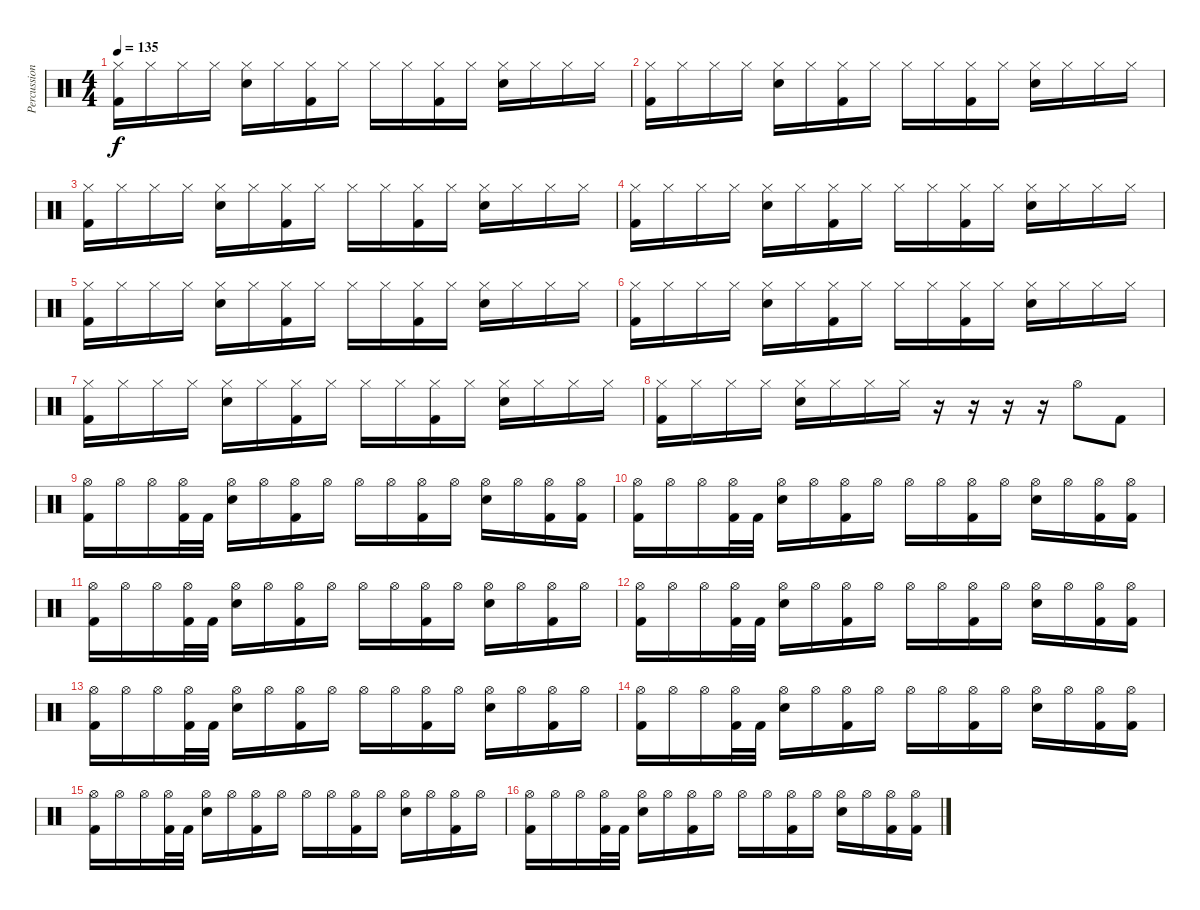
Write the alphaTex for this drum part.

\track ("Percussion" "Percussion") {instrument percussion}
\staff {score}
\articulation defaults
\ts (4 4)
\tempo 135
\clef neutral
\ks c
("Hi-Hat (closed)" "Kick (hit) 2").16{dy f} "Hi-Hat (closed)".16 "Hi-Hat (closed)".16 "Hi-Hat (closed)".16 ("Hi-Hat (closed)" "Snare (hit) 2").16 "Hi-Hat (closed)".16 ("Hi-Hat (closed)" "Kick (hit) 2").16 "Hi-Hat (closed)".16 "Hi-Hat (closed)".16 "Hi-Hat (closed)".16 ("Hi-Hat (closed)" "Kick (hit) 2").16 "Hi-Hat (closed)".16 ("Hi-Hat (closed)" "Snare (hit) 2").16 "Hi-Hat (closed)".16 "Hi-Hat (closed)".16 "Hi-Hat (closed)".16 |
("Hi-Hat (closed)" "Kick (hit) 2").16 "Hi-Hat (closed)".16 "Hi-Hat (closed)".16 "Hi-Hat (closed)".16 ("Hi-Hat (closed)" "Snare (hit) 2").16 "Hi-Hat (closed)".16 ("Hi-Hat (closed)" "Kick (hit) 2").16 "Hi-Hat (closed)".16 "Hi-Hat (closed)".16 "Hi-Hat (closed)".16 ("Hi-Hat (closed)" "Kick (hit) 2").16 "Hi-Hat (closed)".16 ("Hi-Hat (closed)" "Snare (hit) 2").16 "Hi-Hat (closed)".16 "Hi-Hat (closed)".16 "Hi-Hat (closed)".16 |
("Hi-Hat (closed)" "Kick (hit) 2").16 "Hi-Hat (closed)".16 "Hi-Hat (closed)".16 "Hi-Hat (closed)".16 ("Hi-Hat (closed)" "Snare (hit) 2").16 "Hi-Hat (closed)".16 ("Hi-Hat (closed)" "Kick (hit) 2").16 "Hi-Hat (closed)".16 "Hi-Hat (closed)".16 "Hi-Hat (closed)".16 ("Hi-Hat (closed)" "Kick (hit) 2").16 "Hi-Hat (closed)".16 ("Hi-Hat (closed)" "Snare (hit) 2").16 "Hi-Hat (closed)".16 "Hi-Hat (closed)".16 "Hi-Hat (closed)".16 |
("Hi-Hat (closed)" "Kick (hit) 2").16 "Hi-Hat (closed)".16 "Hi-Hat (closed)".16 "Hi-Hat (closed)".16 ("Hi-Hat (closed)" "Snare (hit) 2").16 "Hi-Hat (closed)".16 ("Hi-Hat (closed)" "Kick (hit) 2").16 "Hi-Hat (closed)".16 "Hi-Hat (closed)".16 "Hi-Hat (closed)".16 ("Hi-Hat (closed)" "Kick (hit) 2").16 "Hi-Hat (closed)".16 ("Hi-Hat (closed)" "Snare (hit) 2").16 "Hi-Hat (closed)".16 "Hi-Hat (closed)".16 "Hi-Hat (closed)".16 |
("Hi-Hat (closed)" "Kick (hit) 2").16 "Hi-Hat (closed)".16 "Hi-Hat (closed)".16 "Hi-Hat (closed)".16 ("Hi-Hat (closed)" "Snare (hit) 2").16 "Hi-Hat (closed)".16 ("Hi-Hat (closed)" "Kick (hit) 2").16 "Hi-Hat (closed)".16 "Hi-Hat (closed)".16 "Hi-Hat (closed)".16 ("Hi-Hat (closed)" "Kick (hit) 2").16 "Hi-Hat (closed)".16 ("Hi-Hat (closed)" "Snare (hit) 2").16 "Hi-Hat (closed)".16 "Hi-Hat (closed)".16 "Hi-Hat (closed)".16 |
("Hi-Hat (closed)" "Kick (hit) 2").16 "Hi-Hat (closed)".16 "Hi-Hat (closed)".16 "Hi-Hat (closed)".16 ("Hi-Hat (closed)" "Snare (hit) 2").16 "Hi-Hat (closed)".16 ("Hi-Hat (closed)" "Kick (hit) 2").16 "Hi-Hat (closed)".16 "Hi-Hat (closed)".16 "Hi-Hat (closed)".16 ("Hi-Hat (closed)" "Kick (hit) 2").16 "Hi-Hat (closed)".16 ("Hi-Hat (closed)" "Snare (hit) 2").16 "Hi-Hat (closed)".16 "Hi-Hat (closed)".16 "Hi-Hat (closed)".16 |
("Hi-Hat (closed)" "Kick (hit) 2").16 "Hi-Hat (closed)".16 "Hi-Hat (closed)".16 "Hi-Hat (closed)".16 ("Hi-Hat (closed)" "Snare (hit) 2").16 "Hi-Hat (closed)".16 ("Hi-Hat (closed)" "Kick (hit) 2").16 "Hi-Hat (closed)".16 "Hi-Hat (closed)".16 "Hi-Hat (closed)".16 ("Hi-Hat (closed)" "Kick (hit) 2").16 "Hi-Hat (closed)".16 ("Hi-Hat (closed)" "Snare (hit) 2").16 "Hi-Hat (closed)".16 "Hi-Hat (closed)".16 "Hi-Hat (closed)".16 |
("Hi-Hat (closed)" "Kick (hit) 2").16 "Hi-Hat (closed)".16 "Hi-Hat (closed)".16 "Hi-Hat (closed)".16 ("Hi-Hat (closed)" "Snare (hit) 2").16 "Hi-Hat (closed)".16 "Hi-Hat (closed)".16 "Hi-Hat (closed)".16 r.16 r.16 r.16 r.16 "Hi-Hat (open)".8 "Kick (hit) 2".8 |
("Hi-Hat (open)" "Kick (hit) 2").16 "Hi-Hat (open)".16 "Hi-Hat (open)".16 ("Hi-Hat (open)" "Kick (hit) 2").32 "Kick (hit) 2".32 ("Hi-Hat (open)" "Snare (hit) 2").16 "Hi-Hat (open)".16 ("Hi-Hat (open)" "Kick (hit) 2").16 "Hi-Hat (open)".16 "Hi-Hat (open)".16 "Hi-Hat (open)".16 ("Hi-Hat (open)" "Kick (hit) 2").16 "Hi-Hat (open)".16 ("Hi-Hat (open)" "Snare (hit) 2").16 "Hi-Hat (open)".16 ("Hi-Hat (open)" "Kick (hit) 2").16 ("Hi-Hat (open)" "Kick (hit) 2").16 |
("Hi-Hat (open)" "Kick (hit) 2").16 "Hi-Hat (open)".16 "Hi-Hat (open)".16 ("Hi-Hat (open)" "Kick (hit) 2").32 "Kick (hit) 2".32 ("Hi-Hat (open)" "Snare (hit) 2").16 "Hi-Hat (open)".16 ("Hi-Hat (open)" "Kick (hit) 2").16 "Hi-Hat (open)".16 "Hi-Hat (open)".16 "Hi-Hat (open)".16 ("Hi-Hat (open)" "Kick (hit) 2").16 "Hi-Hat (open)".16 ("Hi-Hat (open)" "Snare (hit) 2").16 "Hi-Hat (open)".16 ("Hi-Hat (open)" "Kick (hit) 2").16 ("Hi-Hat (open)" "Kick (hit) 2").16 |
("Hi-Hat (open)" "Kick (hit) 2").16 "Hi-Hat (open)".16 "Hi-Hat (open)".16 ("Hi-Hat (open)" "Kick (hit) 2").32 "Kick (hit) 2".32 ("Hi-Hat (open)" "Snare (hit) 2").16 "Hi-Hat (open)".16 ("Hi-Hat (open)" "Kick (hit) 2").16 "Hi-Hat (open)".16 "Hi-Hat (open)".16 "Hi-Hat (open)".16 ("Hi-Hat (open)" "Kick (hit) 2").16 "Hi-Hat (open)".16 ("Hi-Hat (open)" "Snare (hit) 2").16 "Hi-Hat (open)".16 ("Hi-Hat (open)" "Kick (hit) 2").16 "Hi-Hat (open)".16 |
("Hi-Hat (open)" "Kick (hit) 2").16 "Hi-Hat (open)".16 "Hi-Hat (open)".16 ("Hi-Hat (open)" "Kick (hit) 2").32 "Kick (hit) 2".32 ("Hi-Hat (open)" "Snare (hit) 2").16 "Hi-Hat (open)".16 ("Hi-Hat (open)" "Kick (hit) 2").16 "Hi-Hat (open)".16 "Hi-Hat (open)".16 "Hi-Hat (open)".16 ("Hi-Hat (open)" "Kick (hit) 2").16 "Hi-Hat (open)".16 ("Hi-Hat (open)" "Snare (hit) 2").16 "Hi-Hat (open)".16 ("Hi-Hat (open)" "Kick (hit) 2").16 ("Hi-Hat (open)" "Kick (hit) 2").16 |
("Hi-Hat (open)" "Kick (hit) 2").16 "Hi-Hat (open)".16 "Hi-Hat (open)".16 ("Hi-Hat (open)" "Kick (hit) 2").32 "Kick (hit) 2".32 ("Hi-Hat (open)" "Snare (hit) 2").16 "Hi-Hat (open)".16 ("Hi-Hat (open)" "Kick (hit) 2").16 "Hi-Hat (open)".16 "Hi-Hat (open)".16 "Hi-Hat (open)".16 ("Hi-Hat (open)" "Kick (hit) 2").16 "Hi-Hat (open)".16 ("Hi-Hat (open)" "Snare (hit) 2").16 "Hi-Hat (open)".16 ("Hi-Hat (open)" "Kick (hit) 2").16 "Hi-Hat (open)".16 |
("Hi-Hat (open)" "Kick (hit) 2").16 "Hi-Hat (open)".16 "Hi-Hat (open)".16 ("Hi-Hat (open)" "Kick (hit) 2").32 "Kick (hit) 2".32 ("Hi-Hat (open)" "Snare (hit) 2").16 "Hi-Hat (open)".16 ("Hi-Hat (open)" "Kick (hit) 2").16 "Hi-Hat (open)".16 "Hi-Hat (open)".16 "Hi-Hat (open)".16 ("Hi-Hat (open)" "Kick (hit) 2").16 "Hi-Hat (open)".16 ("Hi-Hat (open)" "Snare (hit) 2").16 "Hi-Hat (open)".16 ("Hi-Hat (open)" "Kick (hit) 2").16 ("Hi-Hat (open)" "Kick (hit) 2").16 |
("Hi-Hat (open)" "Kick (hit) 2").16 "Hi-Hat (open)".16 "Hi-Hat (open)".16 ("Hi-Hat (open)" "Kick (hit) 2").32 "Kick (hit) 2".32 ("Hi-Hat (open)" "Snare (hit) 2").16 "Hi-Hat (open)".16 ("Hi-Hat (open)" "Kick (hit) 2").16 "Hi-Hat (open)".16 "Hi-Hat (open)".16 "Hi-Hat (open)".16 ("Hi-Hat (open)" "Kick (hit) 2").16 "Hi-Hat (open)".16 ("Hi-Hat (open)" "Snare (hit) 2").16 "Hi-Hat (open)".16 ("Hi-Hat (open)" "Kick (hit) 2").16 "Hi-Hat (open)".16 |
("Hi-Hat (open)" "Kick (hit) 2").16 "Hi-Hat (open)".16 "Hi-Hat (open)".16 ("Hi-Hat (open)" "Kick (hit) 2").32 "Kick (hit) 2".32 ("Hi-Hat (open)" "Snare (hit) 2").16 "Hi-Hat (open)".16 ("Hi-Hat (open)" "Kick (hit) 2").16 "Hi-Hat (open)".16 "Hi-Hat (open)".16 "Hi-Hat (open)".16 ("Hi-Hat (open)" "Kick (hit) 2").16 "Hi-Hat (open)".16 ("Hi-Hat (open)" "Snare (hit) 2").16 "Hi-Hat (open)".16 ("Hi-Hat (open)" "Kick (hit) 2").16 ("Hi-Hat (open)" "Kick (hit) 2").16
